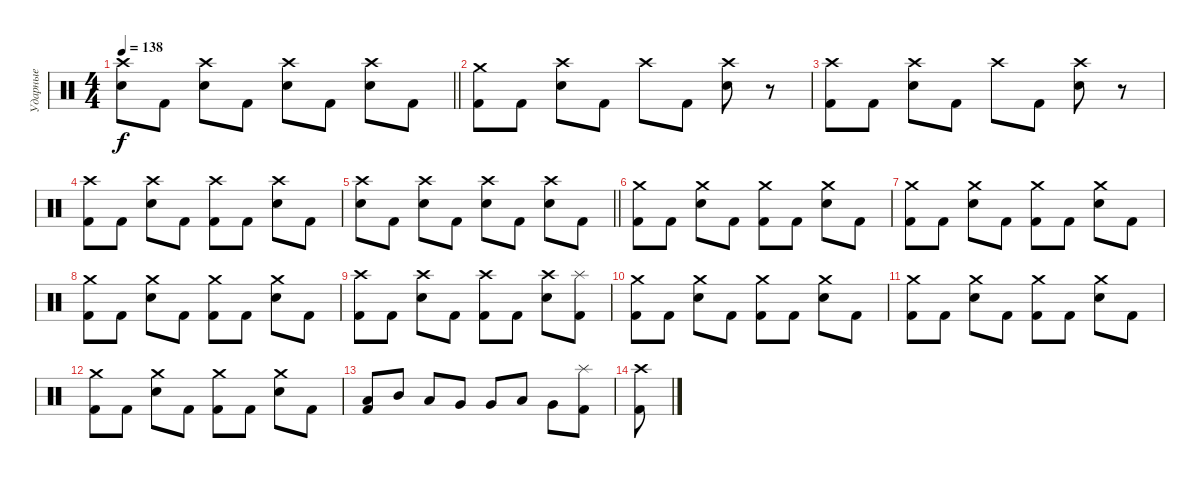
\track ("Ударные" "Ударные") {instrument percussion}
\staff {score}
\articulation defaults
\ts (4 4)
\tempo 138
\clef neutral
\barLineRight lightlight
\ks c
("Crash high (hit)" "Snare (hit) 2").8{dy f} "Kick (hit) 2".8 ("Crash high (hit)" "Snare (hit) 2").8 "Kick (hit) 2".8 ("Crash high (hit)" "Snare (hit) 2").8 "Kick (hit) 2".8 ("Crash high (hit)" "Snare (hit) 2").8 "Kick (hit) 2".8 |
("Crash medium (hit)" "Kick (hit) 2").8 "Kick (hit) 2".8 ("Crash high (hit)" "Snare (hit) 2").8 "Kick (hit) 2".8 "Crash high (hit)".8 "Kick (hit) 2".8 ("Crash high (hit)" "Snare (hit) 2").8 r.8 |
("Crash high (hit)" "Kick (hit) 2").8 "Kick (hit) 2".8 ("Crash high (hit)" "Snare (hit) 2").8 "Kick (hit) 2".8 "Crash high (hit)".8 "Kick (hit) 2".8 ("Crash high (hit)" "Snare (hit) 2").8 r.8 |
("Crash high (hit)" "Kick (hit) 2").8 "Kick (hit) 2".8 ("Crash high (hit)" "Snare (hit) 2").8 "Kick (hit) 2".8 ("Crash high (hit)" "Kick (hit) 2").8 "Kick (hit) 2".8 ("Crash high (hit)" "Snare (hit) 2").8 "Kick (hit) 2".8 |
\barLineRight lightlight
("Crash high (hit)" "Snare (hit) 2").8 "Kick (hit) 2".8 ("Crash high (hit)" "Snare (hit) 2").8 "Kick (hit) 2".8 ("Crash high (hit)" "Snare (hit) 2").8 "Kick (hit) 2".8 ("Crash high (hit)" "Snare (hit) 2").8 "Kick (hit) 2".8 |
("Crash medium (hit)" "Kick (hit) 2").8 "Kick (hit) 2".8 ("Crash medium (hit)" "Snare (hit) 2").8 "Kick (hit) 2".8 ("Crash medium (hit)" "Kick (hit) 2").8 "Kick (hit) 2".8 ("Crash medium (hit)" "Snare (hit) 2").8 "Kick (hit) 2".8 |
("Crash medium (hit)" "Kick (hit) 2").8 "Kick (hit) 2".8 ("Crash medium (hit)" "Snare (hit) 2").8 "Kick (hit) 2".8 ("Crash medium (hit)" "Kick (hit) 2").8 "Kick (hit) 2".8 ("Crash medium (hit)" "Snare (hit) 2").8 "Kick (hit) 2".8 |
("Crash medium (hit)" "Kick (hit) 2").8 "Kick (hit) 2".8 ("Crash medium (hit)" "Snare (hit) 2").8 "Kick (hit) 2".8 ("Crash medium (hit)" "Kick (hit) 2").8 "Kick (hit) 2".8 ("Crash medium (hit)" "Snare (hit) 2").8 "Kick (hit) 2".8 |
("Crash high (hit)" "Kick (hit) 2").8 "Kick (hit) 2".8 ("Crash high (hit)" "Snare (hit) 2").8 "Kick (hit) 2".8 ("Crash high (hit)" "Kick (hit) 2").8 "Kick (hit) 2".8 ("Crash high (hit)" "Snare (hit) 2").8 ("Splash (hit)" "Kick (hit) 2").8 |
("Crash medium (hit)" "Kick (hit) 2").8 "Kick (hit) 2".8 ("Crash medium (hit)" "Snare (hit) 2").8 "Kick (hit) 2".8 ("Crash medium (hit)" "Kick (hit) 2").8 "Kick (hit) 2".8 ("Crash medium (hit)" "Snare (hit) 2").8 "Kick (hit) 2".8 |
("Crash medium (hit)" "Kick (hit) 2").8 "Kick (hit) 2".8 ("Crash medium (hit)" "Snare (hit) 2").8 "Kick (hit) 2".8 ("Crash medium (hit)" "Kick (hit) 2").8 "Kick (hit) 2".8 ("Crash medium (hit)" "Snare (hit) 2").8 "Kick (hit) 2".8 |
("Crash medium (hit)" "Kick (hit) 2").8 "Kick (hit) 2".8 ("Crash medium (hit)" "Snare (hit) 2").8 "Kick (hit) 2".8 ("Crash medium (hit)" "Kick (hit) 2").8 "Kick (hit) 2".8 ("Crash medium (hit)" "Snare (hit) 2").8 "Kick (hit) 2".8 |
("Low Floor Tom (hit)" "Kick (hit) 2").8 "Mid Tom (hit)".8 "Low Tom (hit)".8 "Very Low Tom (hit)".8 "Very Low Tom (hit)".8 "Low Floor Tom (hit)".8 "Very Low Tom (hit)".8 ("Splash (hit)" "Kick (hit) 2").8 |
("Crash high (hit)" "Kick (hit) 2").8
